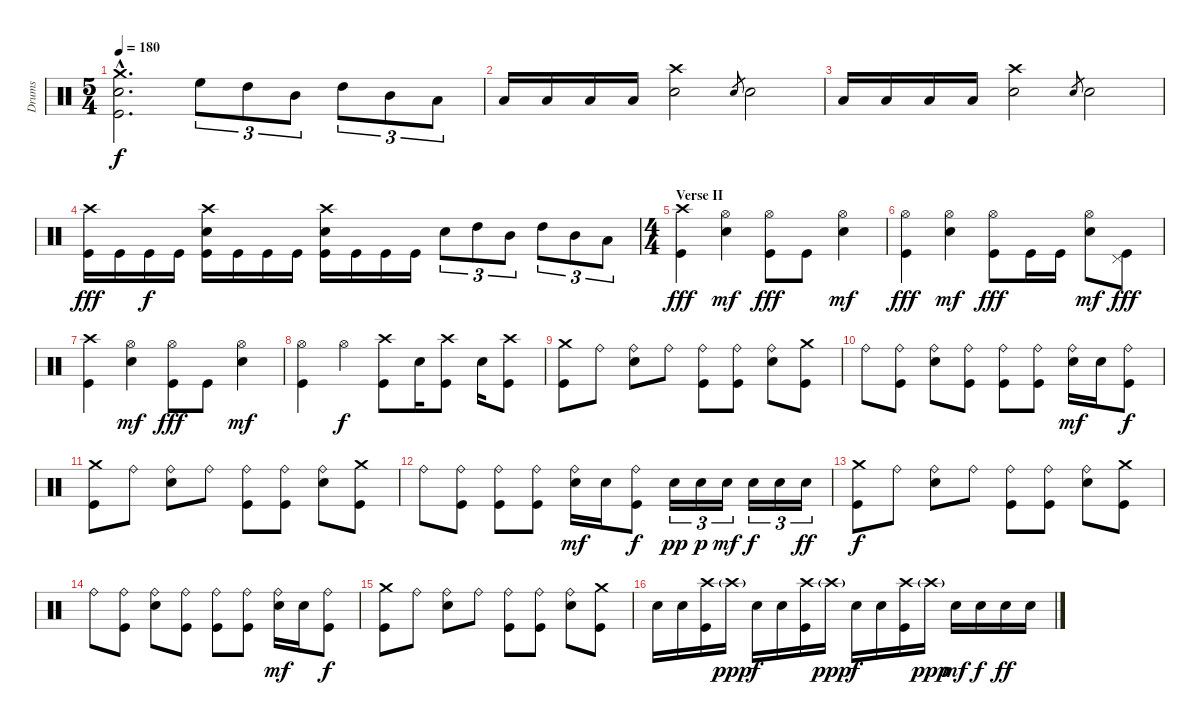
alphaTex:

\track ("Drums" "Drums") {instrument percussion}
\staff {score}
\articulation defaults
\ts (5 4)
\tempo 180
\clef neutral
\ks c
("Crash medium (hit)"{hac} "Kick (hit)"{hac} "Electric Snare (hit)"{hac}).2{d dy f} "High Floor Tom (hit)".8{tu (3 2)} "High Tom (hit)".8{tu (3 2)} "Mid Tom (hit)".8{tu (3 2)} "High Tom (hit)".8{tu (3 2)} "Mid Tom (hit)".8{tu (3 2)} "Low Tom (hit)".8{tu (3 2)} |
"Low Floor Tom (hit)".16 "Low Floor Tom (hit)".16 "Low Floor Tom (hit)".16 "Low Floor Tom (hit)".16 ("Crash high (hit)" "Electric Snare (hit)").2 "Electric Snare (hit)".8{gr} "Electric Snare (hit)".2 |
"Low Floor Tom (hit)".16 "Low Floor Tom (hit)".16 "Low Floor Tom (hit)".16 "Low Floor Tom (hit)".16 ("Crash high (hit)" "Electric Snare (hit)").2 "Electric Snare (hit)".8{gr} "Electric Snare (hit)".2 |
("Crash high (hit)" "Kick (hit)").16{dy fff} "Kick (hit)".16 "Kick (hit)".16{dy f} "Kick (hit)".16 ("Crash high (hit)" "Electric Snare (hit)" "Kick (hit)").16 "Kick (hit)".16 "Kick (hit)".16 "Kick (hit)".16 ("Crash high (hit)" "Electric Snare (hit)" "Kick (hit)").16 "Kick (hit)".16 "Kick (hit)".16 "Kick (hit)".16 "Electric Snare (hit)".8{tu (3 2)} "High Tom (hit)".8{tu (3 2)} "Mid Tom (hit)".8{tu (3 2)} "High Tom (hit)".8{tu (3 2)} "Mid Tom (hit)".8{tu (3 2)} "Low Tom (hit)".8{tu (3 2)} |
\ts (4 4)
\section ("" "Verse II")
("Crash high (hit)" "Kick (hit)").4{dy fff} ("Hi-Hat (open)" "Electric Snare (hit)").4{dy mf} ("Hi-Hat (open)" "Kick (hit)").8{dy fff} "Kick (hit)".8 ("Hi-Hat (open)" "Electric Snare (hit)").4{dy mf} |
("Hi-Hat (open)" "Kick (hit)").4{dy fff} ("Hi-Hat (open)" "Electric Snare (hit)").4{dy mf} ("Hi-Hat (open)" "Kick (hit)").8{dy fff} "Kick (hit)".16 "Kick (hit)".16 ("Hi-Hat (open)" "Electric Snare (hit)").8{dy mf} ("Pedal Hi-Hat (hit)" "Kick (hit)").8{dy fff} |
("Crash high (hit)" "Kick (hit)").4 ("Hi-Hat (open)" "Electric Snare (hit)").4{dy mf} ("Hi-Hat (open)" "Kick (hit)").8{dy fff} "Kick (hit)".8 ("Hi-Hat (open)" "Electric Snare (hit)").4{dy mf} |
("Hi-Hat (open)" "Kick (hit)").4 "Hi-Hat (open)".4{dy f} ("Crash high (hit)" "Kick (hit)").8 "Electric Snare (hit)".16 ("Crash high (hit)" "Kick (hit)").8 "Electric Snare (hit)".16 ("Crash high (hit)" "Kick (hit)").8 |
("Crash medium (hit)" "Kick (hit)").8 "Ride (bell)".8 ("Ride (bell)" "Electric Snare (hit)").8 "Ride (bell)".8 ("Ride (bell)" "Kick (hit)").8 ("Ride (bell)" "Kick (hit)").8 ("Ride (bell)" "Electric Snare (hit)").8 ("Crash medium (hit)" "Kick (hit)").8 |
"Ride (bell)".8 ("Ride (bell)" "Kick (hit)").8 ("Ride (bell)" "Electric Snare (hit)").8 ("Ride (bell)" "Kick (hit)").8 ("Ride (bell)" "Kick (hit)").8 ("Ride (bell)" "Kick (hit)").8 ("Ride (bell)" "Electric Snare (hit)").16{dy mf} "Electric Snare (hit)".16 ("Ride (bell)" "Kick (hit)").8{dy f} |
("Crash medium (hit)" "Kick (hit)").8 "Ride (bell)".8 ("Ride (bell)" "Electric Snare (hit)").8 "Ride (bell)".8 ("Ride (bell)" "Kick (hit)").8 ("Ride (bell)" "Kick (hit)").8 ("Ride (bell)" "Electric Snare (hit)").8 ("Crash medium (hit)" "Kick (hit)").8 |
"Ride (bell)".8 ("Ride (bell)" "Kick (hit)").8 ("Ride (bell)" "Kick (hit)").8 ("Ride (bell)" "Kick (hit)").8 ("Ride (bell)" "Electric Snare (hit)").16{dy mf} "Electric Snare (hit)".16 ("Ride (bell)" "Kick (hit)").8{dy f} "Electric Snare (hit)".16{tu (3 2) dy pp} "Electric Snare (hit)".16{tu (3 2) dy p} "Electric Snare (hit)".16{tu (3 2) dy mf} "Electric Snare (hit)".16{tu (3 2) dy f} "Electric Snare (hit)".16{tu (3 2)} "Electric Snare (hit)".16{tu (3 2) dy ff} |
("Crash medium (hit)" "Kick (hit)").8{dy f} "Ride (bell)".8 ("Ride (bell)" "Electric Snare (hit)").8 "Ride (bell)".8 ("Ride (bell)" "Kick (hit)").8 ("Ride (bell)" "Kick (hit)").8 ("Ride (bell)" "Electric Snare (hit)").8 ("Crash medium (hit)" "Kick (hit)").8 |
"Ride (bell)".8 ("Ride (bell)" "Kick (hit)").8 ("Ride (bell)" "Electric Snare (hit)").8 ("Ride (bell)" "Kick (hit)").8 ("Ride (bell)" "Kick (hit)").8 ("Ride (bell)" "Kick (hit)").8 ("Ride (bell)" "Electric Snare (hit)").16{dy mf} "Electric Snare (hit)".16 ("Ride (bell)" "Kick (hit)").8{dy f} |
("Crash medium (hit)" "Kick (hit)").8 "Ride (bell)".8 ("Ride (bell)" "Electric Snare (hit)").8 "Ride (bell)".8 ("Ride (bell)" "Kick (hit)").8 ("Ride (bell)" "Kick (hit)").8 ("Ride (bell)" "Electric Snare (hit)").8 ("Crash medium (hit)" "Kick (hit)").8 |
"Electric Snare (hit)".16 "Electric Snare (hit)".16 ("Crash high (hit)" "Kick (hit)").16 "Crash high (hit)"{g}.16{dy ppp} "Electric Snare (hit)".16{dy f} "Electric Snare (hit)".16 ("Crash high (hit)" "Kick (hit)").16 "Crash high (hit)"{g}.16{dy ppp} "Electric Snare (hit)".16{dy f} "Electric Snare (hit)".16 ("Crash high (hit)" "Kick (hit)").16 "Crash high (hit)"{g}.16{dy ppp} "Electric Snare (hit)".16{dy mf} "Electric Snare (hit)".16{dy f} "Electric Snare (hit)".16{dy ff} "Electric Snare (hit)".16
